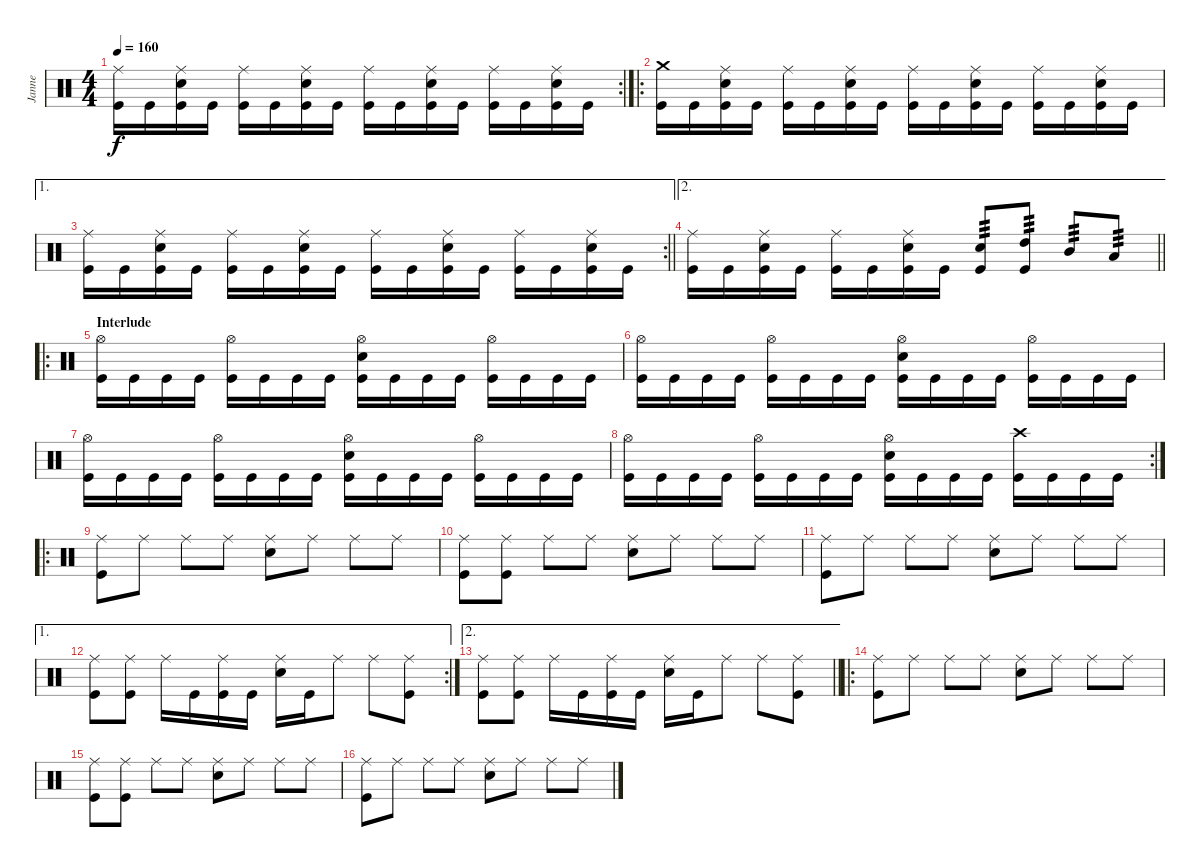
\track ("Janne" "Janne") {instrument percussion}
\staff {score}
\articulation defaults
\rc 2
\ts (4 4)
\tempo 160
\clef neutral
\ks c
("Ride (middle)" "Kick (hit)").16{dy f} "Kick (hit)".16 ("Ride (middle)" "Snare (hit) 2" "Kick (hit)").16 "Kick (hit)".16 ("Ride (middle)" "Kick (hit)").16 "Kick (hit)".16 ("Ride (middle)" "Snare (hit) 2" "Kick (hit)").16 "Kick (hit)".16 ("Ride (middle)" "Kick (hit)").16 "Kick (hit)".16 ("Ride (middle)" "Snare (hit) 2" "Kick (hit)").16 "Kick (hit)".16 ("Ride (middle)" "Kick (hit)").16 "Kick (hit)".16 ("Ride (middle)" "Snare (hit) 2" "Kick (hit)").16 "Kick (hit)".16 |
\ro
("Crash medium (hit)" "Kick (hit)").16 "Kick (hit)".16 ("Ride (middle)" "Snare (hit) 2" "Kick (hit)").16 "Kick (hit)".16 ("Ride (middle)" "Kick (hit)").16 "Kick (hit)".16 ("Ride (middle)" "Snare (hit) 2" "Kick (hit)").16 "Kick (hit)".16 ("Ride (middle)" "Kick (hit)").16 "Kick (hit)".16 ("Ride (middle)" "Snare (hit) 2" "Kick (hit)").16 "Kick (hit)".16 ("Ride (middle)" "Kick (hit)").16 "Kick (hit)".16 ("Ride (middle)" "Snare (hit) 2" "Kick (hit)").16 "Kick (hit)".16 |
\ae 1
\rc 2
\barLineRight lightlight
("Ride (middle)" "Kick (hit)").16 "Kick (hit)".16 ("Ride (middle)" "Snare (hit) 2" "Kick (hit)").16 "Kick (hit)".16 ("Ride (middle)" "Kick (hit)").16 "Kick (hit)".16 ("Ride (middle)" "Snare (hit) 2" "Kick (hit)").16 "Kick (hit)".16 ("Ride (middle)" "Kick (hit)").16 "Kick (hit)".16 ("Ride (middle)" "Snare (hit) 2" "Kick (hit)").16 "Kick (hit)".16 ("Ride (middle)" "Kick (hit)").16 "Kick (hit)".16 ("Ride (middle)" "Snare (hit) 2" "Kick (hit)").16 "Kick (hit)".16 |
\ae 2
\barLineRight lightlight
("Ride (middle)" "Kick (hit)").16 "Kick (hit)".16 ("Ride (middle)" "Snare (hit) 2" "Kick (hit)").16 "Kick (hit)".16 ("Ride (middle)" "Kick (hit)").16 "Kick (hit)".16 ("Ride (middle)" "Snare (hit) 2" "Kick (hit)").16 "Kick (hit)".16 ("Snare (hit) 2" "Kick (hit)").8{tp 3} ("High Tom (hit)" "Kick (hit)").8{tp 3} "Mid Tom (hit)".8{tp 3} "Low Tom (hit)".8{tp 3} |
\ro
\section ("" "Interlude")
("Hi-Hat (open)" "Kick (hit)").16 "Kick (hit)".16 "Kick (hit)".16 "Kick (hit)".16 ("Hi-Hat (open)" "Kick (hit)").16 "Kick (hit)".16 "Kick (hit)".16 "Kick (hit)".16 ("Hi-Hat (open)" "Snare (hit) 2" "Kick (hit)").16 "Kick (hit)".16 "Kick (hit)".16 "Kick (hit)".16 ("Hi-Hat (open)" "Kick (hit)").16 "Kick (hit)".16 "Kick (hit)".16 "Kick (hit)".16 |
("Hi-Hat (open)" "Kick (hit)").16 "Kick (hit)".16 "Kick (hit)".16 "Kick (hit)".16 ("Hi-Hat (open)" "Kick (hit)").16 "Kick (hit)".16 "Kick (hit)".16 "Kick (hit)".16 ("Hi-Hat (open)" "Snare (hit) 2" "Kick (hit)").16 "Kick (hit)".16 "Kick (hit)".16 "Kick (hit)".16 ("Hi-Hat (open)" "Kick (hit)").16 "Kick (hit)".16 "Kick (hit)".16 "Kick (hit)".16 |
("Hi-Hat (open)" "Kick (hit)").16 "Kick (hit)".16 "Kick (hit)".16 "Kick (hit)".16 ("Hi-Hat (open)" "Kick (hit)").16 "Kick (hit)".16 "Kick (hit)".16 "Kick (hit)".16 ("Hi-Hat (open)" "Snare (hit) 2" "Kick (hit)").16 "Kick (hit)".16 "Kick (hit)".16 "Kick (hit)".16 ("Hi-Hat (open)" "Kick (hit)").16 "Kick (hit)".16 "Kick (hit)".16 "Kick (hit)".16 |
\rc 2
("Hi-Hat (open)" "Kick (hit)").16 "Kick (hit)".16 "Kick (hit)".16 "Kick (hit)".16 ("Hi-Hat (open)" "Kick (hit)").16 "Kick (hit)".16 "Kick (hit)".16 "Kick (hit)".16 ("Hi-Hat (open)" "Snare (hit) 2" "Kick (hit)").16 "Kick (hit)".16 "Kick (hit)".16 "Kick (hit)".16 ("Crash high (hit)" "Kick (hit)").16 "Kick (hit)".16 "Kick (hit)".16 "Kick (hit)".16 |
\ro
("Ride (middle)" "Kick (hit)").8 "Ride (middle)".8 "Ride (middle)".8 "Ride (middle)".8 ("Ride (middle)" "Snare (hit) 2").8 "Ride (middle)".8 "Ride (middle)".8 "Ride (middle)".8 |
("Ride (middle)" "Kick (hit)").8 ("Ride (middle)" "Kick (hit)").8 "Ride (middle)".8 "Ride (middle)".8 ("Ride (middle)" "Snare (hit) 2").8 "Ride (middle)".8 "Ride (middle)".8 "Ride (middle)".8 |
("Ride (middle)" "Kick (hit)").8 "Ride (middle)".8 "Ride (middle)".8 "Ride (middle)".8 ("Ride (middle)" "Snare (hit) 2").8 "Ride (middle)".8 "Ride (middle)".8 "Ride (middle)".8 |
\ae 1
\rc 2
("Ride (middle)" "Kick (hit)").8 ("Ride (middle)" "Kick (hit)").8 "Ride (middle)".16 "Kick (hit)".16 ("Ride (middle)" "Kick (hit)").16 "Kick (hit)".16 ("Ride (middle)" "Snare (hit) 2").16 "Kick (hit)".16 "Ride (middle)".8 "Ride (middle)".8 ("Ride (middle)" "Kick (hit)").8 |
\ae 2
\barLineRight lightlight
("Ride (middle)" "Kick (hit)").8 ("Ride (middle)" "Kick (hit)").8 "Ride (middle)".16 "Kick (hit)".16 ("Ride (middle)" "Kick (hit)").16 "Kick (hit)".16 ("Ride (middle)" "Snare (hit) 2").16 "Kick (hit)".16 "Ride (middle)".8 "Ride (middle)".8 ("Ride (middle)" "Kick (hit)").8 |
\ro
("Ride (middle)" "Kick (hit)").8 "Ride (middle)".8 "Ride (middle)".8 "Ride (middle)".8 ("Ride (middle)" "Snare (hit) 2").8 "Ride (middle)".8 "Ride (middle)".8 "Ride (middle)".8 |
("Ride (middle)" "Kick (hit)").8 ("Ride (middle)" "Kick (hit)").8 "Ride (middle)".8 "Ride (middle)".8 ("Ride (middle)" "Snare (hit) 2").8 "Ride (middle)".8 "Ride (middle)".8 "Ride (middle)".8 |
("Ride (middle)" "Kick (hit)").8 "Ride (middle)".8 "Ride (middle)".8 "Ride (middle)".8 ("Ride (middle)" "Snare (hit) 2").8 "Ride (middle)".8 "Ride (middle)".8 "Ride (middle)".8
